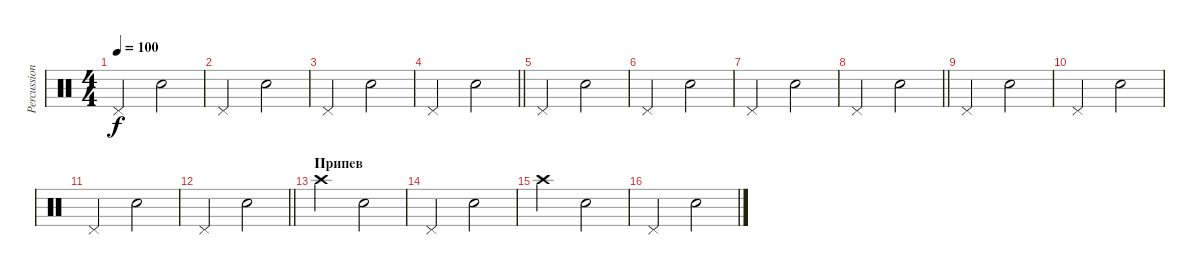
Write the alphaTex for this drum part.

\track ("Percussioni" "Percussion") {instrument percussion}
\staff {score}
\articulation defaults
\ts (4 4)
\tempo 100
\clef neutral
\ks c "Pedal Hi-Hat (hit)".2{dy f} "Snare (hit) 2".2
|
"Pedal Hi-Hat (hit)".2 "Snare (hit) 2".2 |
"Pedal Hi-Hat (hit)".2 "Snare (hit) 2".2 |
\barLineRight lightlight "Pedal Hi-Hat (hit)".2 "Snare (hit) 2".2
|
"Pedal Hi-Hat (hit)".2 "Snare (hit) 2".2 |
"Pedal Hi-Hat (hit)".2 "Snare (hit) 2".2 |
"Pedal Hi-Hat (hit)".2 "Snare (hit) 2".2 |
\barLineRight lightlight "Pedal Hi-Hat (hit)".2 "Snare (hit) 2".2
|
"Pedal Hi-Hat (hit)".2 "Snare (hit) 2".2 |
"Pedal Hi-Hat (hit)".2 "Snare (hit) 2".2 |
"Pedal Hi-Hat (hit)".2 "Snare (hit) 2".2 |
\barLineRight lightlight "Pedal Hi-Hat (hit)".2 "Snare (hit) 2".2
|
\section ("" "Припев")
"Crash high (hit)".2 "Snare (hit) 2".2 |
"Pedal Hi-Hat (hit)".2 "Snare (hit) 2".2 |
"Crash high (hit)".2 "Snare (hit) 2".2 |
"Pedal Hi-Hat (hit)".2 "Snare (hit) 2".2
